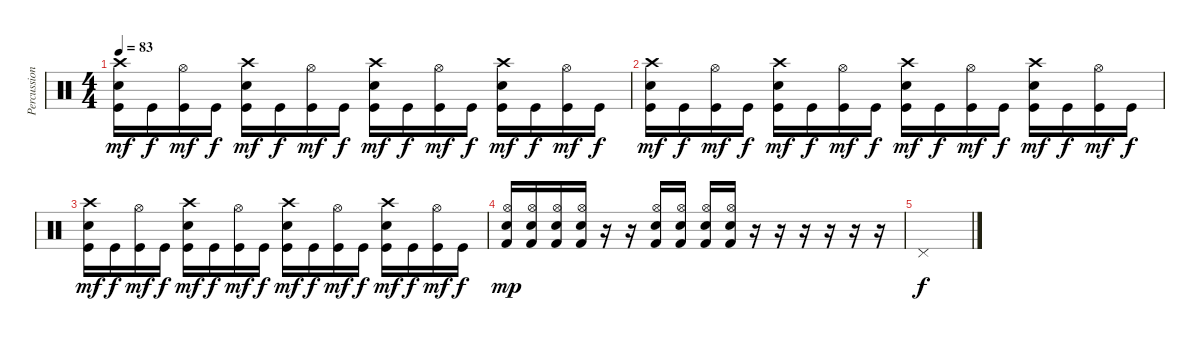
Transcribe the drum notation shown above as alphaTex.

\track ("Percussion" "Percussion") {instrument percussion}
\staff {score}
\articulation defaults
\ts (4 4)
\tempo 83
\clef neutral
\ks c
("Crash high (hit)" "Electric Snare (hit)" "Kick (hit)").16{dy mf} "Kick (hit)".16{dy f} ("Hi-Hat (open)" "Kick (hit)").16{dy mf} "Kick (hit)".16{dy f} ("Crash high (hit)" "Electric Snare (hit)" "Kick (hit)").16{dy mf} "Kick (hit)".16{dy f} ("Hi-Hat (open)" "Kick (hit)").16{dy mf} "Kick (hit)".16{dy f} ("Crash high (hit)" "Electric Snare (hit)" "Kick (hit)").16{dy mf} "Kick (hit)".16{dy f} ("Hi-Hat (open)" "Kick (hit)").16{dy mf} "Kick (hit)".16{dy f} ("Crash high (hit)" "Electric Snare (hit)" "Kick (hit)").16{dy mf} "Kick (hit)".16{dy f} ("Hi-Hat (open)" "Kick (hit)").16{dy mf} "Kick (hit)".16{dy f} |
("Crash high (hit)" "Electric Snare (hit)" "Kick (hit)").16{dy mf} "Kick (hit)".16{dy f} ("Hi-Hat (open)" "Kick (hit)").16{dy mf} "Kick (hit)".16{dy f} ("Crash high (hit)" "Electric Snare (hit)" "Kick (hit)").16{dy mf} "Kick (hit)".16{dy f} ("Hi-Hat (open)" "Kick (hit)").16{dy mf} "Kick (hit)".16{dy f} ("Crash high (hit)" "Electric Snare (hit)" "Kick (hit)").16{dy mf} "Kick (hit)".16{dy f} ("Hi-Hat (open)" "Kick (hit)").16{dy mf} "Kick (hit)".16{dy f} ("Crash high (hit)" "Electric Snare (hit)" "Kick (hit)").16{dy mf} "Kick (hit)".16{dy f} ("Hi-Hat (open)" "Kick (hit)").16{dy mf} "Kick (hit)".16{dy f} |
("Crash high (hit)" "Electric Snare (hit)" "Kick (hit)").16{dy mf} "Kick (hit)".16{dy f} ("Hi-Hat (open)" "Kick (hit)").16{dy mf} "Kick (hit)".16{dy f} ("Crash high (hit)" "Electric Snare (hit)" "Kick (hit)").16{dy mf} "Kick (hit)".16{dy f} ("Hi-Hat (open)" "Kick (hit)").16{dy mf} "Kick (hit)".16{dy f} ("Crash high (hit)" "Electric Snare (hit)" "Kick (hit)").16{dy mf} "Kick (hit)".16{dy f} ("Hi-Hat (open)" "Kick (hit)").16{dy mf} "Kick (hit)".16{dy f} ("Crash high (hit)" "Electric Snare (hit)" "Kick (hit)").16{dy mf} "Kick (hit)".16{dy f} ("Hi-Hat (open)" "Kick (hit)").16{dy mf} "Kick (hit)".16{dy f} |
("Hi-Hat (open)" "Electric Snare (hit)" "Kick (hit) 2").16{dy mp} ("Hi-Hat (open)" "Electric Snare (hit)" "Kick (hit) 2").16 ("Hi-Hat (open)" "Electric Snare (hit)" "Kick (hit) 2").16 ("Hi-Hat (open)" "Electric Snare (hit)" "Kick (hit) 2").16 r.16 r.16 ("Hi-Hat (open)" "Electric Snare (hit)" "Kick (hit) 2").16 ("Hi-Hat (open)" "Electric Snare (hit)" "Kick (hit) 2").16 ("Hi-Hat (open)" "Electric Snare (hit)" "Kick (hit) 2").16 ("Hi-Hat (open)" "Electric Snare (hit)" "Kick (hit) 2").16 r.16 r.16 r.16 r.16 r.16 r.16 |
"Pedal Hi-Hat (hit)".1{dy f}
